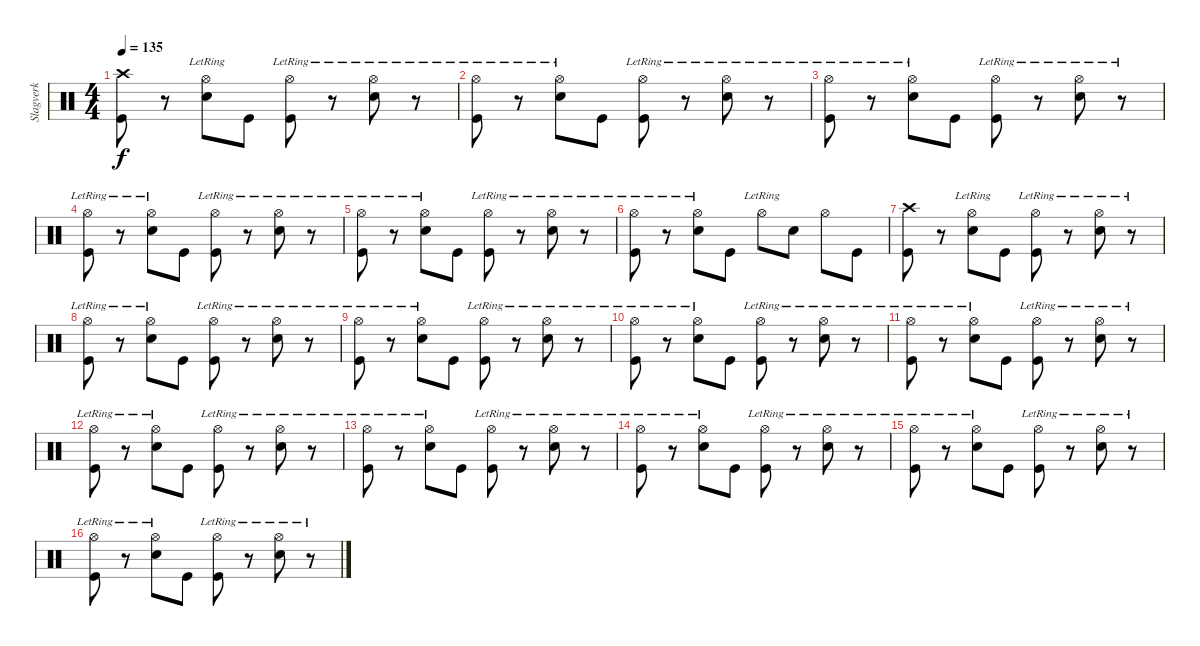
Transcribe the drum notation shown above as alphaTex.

\track ("Slagverk" "Slagverk") {instrument percussion}
\staff {score}
\articulation defaults
\ts (4 4)
\tempo 135
\clef neutral
\ks c
("Crash high (hit)" "Kick (hit)").8{dy f} r.8 ("Electric Snare (hit)" "Hi-Hat (open)"{lr}).8 "Kick (hit)".8 ("Hi-Hat (open)"{lr} "Kick (hit)").8 r.8 ("Electric Snare (hit)" "Hi-Hat (open)"{lr}).8 r.8 |
("Hi-Hat (open)"{lr} "Kick (hit)").8 r.8 ("Electric Snare (hit)" "Hi-Hat (open)"{lr}).8 "Kick (hit)".8 ("Hi-Hat (open)"{lr} "Kick (hit)").8 r.8 ("Electric Snare (hit)" "Hi-Hat (open)"{lr}).8 r.8 |
("Hi-Hat (open)"{lr} "Kick (hit)").8 r.8 ("Electric Snare (hit)" "Hi-Hat (open)"{lr}).8 "Kick (hit)".8 ("Hi-Hat (open)"{lr} "Kick (hit)").8 r.8 ("Electric Snare (hit)" "Hi-Hat (open)"{lr}).8 r.8 |
("Hi-Hat (open)"{lr} "Kick (hit)").8 r.8 ("Electric Snare (hit)" "Hi-Hat (open)"{lr}).8 "Kick (hit)".8 ("Hi-Hat (open)"{lr} "Kick (hit)").8 r.8 ("Electric Snare (hit)" "Hi-Hat (open)"{lr}).8 r.8 |
("Hi-Hat (open)"{lr} "Kick (hit)").8 r.8 ("Electric Snare (hit)" "Hi-Hat (open)"{lr}).8 "Kick (hit)".8 ("Hi-Hat (open)"{lr} "Kick (hit)").8 r.8 ("Electric Snare (hit)" "Hi-Hat (open)"{lr}).8 r.8 |
("Hi-Hat (open)"{lr} "Kick (hit)").8 r.8 ("Electric Snare (hit)" "Hi-Hat (open)"{lr}).8 "Kick (hit)".8 "Hi-Hat (open)"{lr}.8 "Electric Snare (hit)".8 "Hi-Hat (open)".8 "Kick (hit)".8 |
("Crash high (hit)" "Kick (hit)").8 r.8 ("Electric Snare (hit)" "Hi-Hat (open)"{lr}).8 "Kick (hit)".8 ("Hi-Hat (open)"{lr} "Kick (hit)").8 r.8 ("Electric Snare (hit)" "Hi-Hat (open)"{lr}).8 r.8 |
("Hi-Hat (open)"{lr} "Kick (hit)").8 r.8 ("Electric Snare (hit)" "Hi-Hat (open)"{lr}).8 "Kick (hit)".8 ("Hi-Hat (open)"{lr} "Kick (hit)").8 r.8 ("Electric Snare (hit)" "Hi-Hat (open)"{lr}).8 r.8 |
("Hi-Hat (open)"{lr} "Kick (hit)").8 r.8 ("Electric Snare (hit)" "Hi-Hat (open)"{lr}).8 "Kick (hit)".8 ("Hi-Hat (open)"{lr} "Kick (hit)").8 r.8 ("Electric Snare (hit)" "Hi-Hat (open)"{lr}).8 r.8 |
("Hi-Hat (open)"{lr} "Kick (hit)").8 r.8 ("Electric Snare (hit)" "Hi-Hat (open)"{lr}).8 "Kick (hit)".8 ("Hi-Hat (open)"{lr} "Kick (hit)").8 r.8 ("Electric Snare (hit)" "Hi-Hat (open)"{lr}).8 r.8 |
("Hi-Hat (open)"{lr} "Kick (hit)").8 r.8 ("Electric Snare (hit)" "Hi-Hat (open)"{lr}).8 "Kick (hit)".8 ("Hi-Hat (open)"{lr} "Kick (hit)").8 r.8 ("Electric Snare (hit)" "Hi-Hat (open)"{lr}).8 r.8 |
("Hi-Hat (open)"{lr} "Kick (hit)").8 r.8 ("Electric Snare (hit)" "Hi-Hat (open)"{lr}).8 "Kick (hit)".8 ("Hi-Hat (open)"{lr} "Kick (hit)").8 r.8 ("Electric Snare (hit)" "Hi-Hat (open)"{lr}).8 r.8 |
("Hi-Hat (open)"{lr} "Kick (hit)").8 r.8 ("Electric Snare (hit)" "Hi-Hat (open)"{lr}).8 "Kick (hit)".8 ("Hi-Hat (open)"{lr} "Kick (hit)").8 r.8 ("Electric Snare (hit)" "Hi-Hat (open)"{lr}).8 r.8 |
("Hi-Hat (open)"{lr} "Kick (hit)").8 r.8 ("Electric Snare (hit)" "Hi-Hat (open)"{lr}).8 "Kick (hit)".8 ("Hi-Hat (open)"{lr} "Kick (hit)").8 r.8 ("Electric Snare (hit)" "Hi-Hat (open)"{lr}).8 r.8 |
("Hi-Hat (open)"{lr} "Kick (hit)").8 r.8 ("Electric Snare (hit)" "Hi-Hat (open)"{lr}).8 "Kick (hit)".8 ("Hi-Hat (open)"{lr} "Kick (hit)").8 r.8 ("Electric Snare (hit)" "Hi-Hat (open)"{lr}).8 r.8 |
("Hi-Hat (open)"{lr} "Kick (hit)").8 r.8 ("Electric Snare (hit)" "Hi-Hat (open)"{lr}).8 "Kick (hit)".8 ("Hi-Hat (open)"{lr} "Kick (hit)").8 r.8 ("Electric Snare (hit)" "Hi-Hat (open)"{lr}).8 r.8
